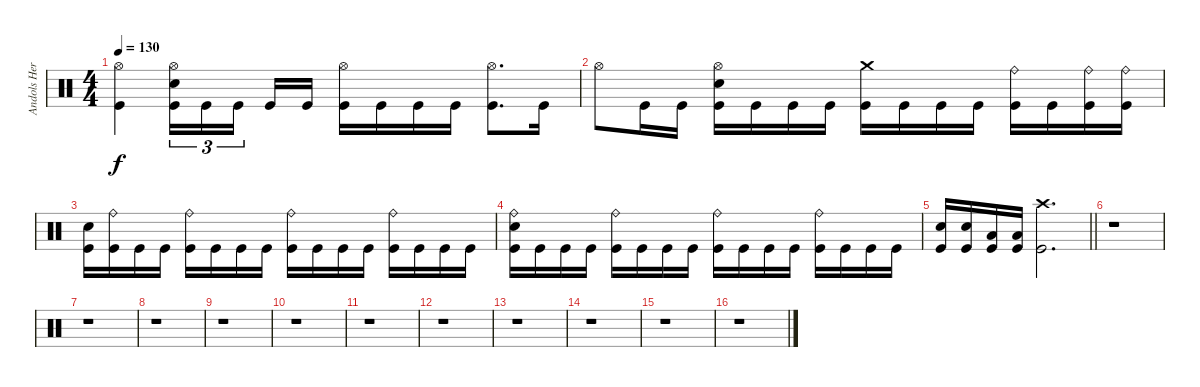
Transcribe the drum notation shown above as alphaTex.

\track ("Andols Herrick" "Andols Her") {instrument percussion}
\staff {score}
\articulation defaults
\ts (4 4)
\tempo 130
\clef neutral
\ks c
("Hi-Hat (open)" "Kick (hit)").4{dy f} ("Hi-Hat (open)" "Electric Snare (hit)" "Kick (hit)").16{tu (3 2)} "Kick (hit)".16{tu (3 2)} "Kick (hit)".16{tu (3 2) beam splitsecondary} "Kick (hit)".16 "Kick (hit)".16 ("Hi-Hat (open)" "Kick (hit)").16 "Kick (hit)".16 "Kick (hit)".16 "Kick (hit)".16 ("Hi-Hat (open)" "Kick (hit)").8{d} "Kick (hit)".16 |
"Hi-Hat (open)".8 "Kick (hit)".16 "Kick (hit)".16 ("Hi-Hat (open)" "Electric Snare (hit)" "Kick (hit)").16 "Kick (hit)".16 "Kick (hit)".16 "Kick (hit)".16 ("Crash medium (hit)" "Kick (hit)").16 "Kick (hit)".16 "Kick (hit)".16 "Kick (hit)".16 ("Ride (bell)" "Kick (hit)").16 "Kick (hit)".16 ("Ride (bell)" "Kick (hit)").16 ("Ride (bell)" "Kick (hit)").16 |
("Electric Snare (hit)" "Kick (hit)").16 ("Ride (bell)" "Kick (hit)").16 "Kick (hit)".16 "Kick (hit)".16 ("Ride (bell)" "Kick (hit)").16 "Kick (hit)".16 "Kick (hit)".16 "Kick (hit)".16 ("Ride (bell)" "Kick (hit)").16 "Kick (hit)".16 "Kick (hit)".16 "Kick (hit)".16 ("Ride (bell)" "Kick (hit)").16 "Kick (hit)".16 "Kick (hit)".16 "Kick (hit)".16 |
("Ride (bell)" "Electric Snare (hit)" "Kick (hit)").16 "Kick (hit)".16 "Kick (hit)".16 "Kick (hit)".16 ("Ride (bell)" "Kick (hit)").16 "Kick (hit)".16 "Kick (hit)".16 "Kick (hit)".16 ("Ride (bell)" "Kick (hit)").16 "Kick (hit)".16 "Kick (hit)".16 "Kick (hit)".16 ("Ride (bell)" "Kick (hit)").16 "Kick (hit)".16 "Kick (hit)".16 "Kick (hit)".16 |
\barLineRight lightlight
("Electric Snare (hit)" "Kick (hit)").16 ("Electric Snare (hit)" "Kick (hit)").16 ("Low Tom (hit)" "Kick (hit)").16 ("Low Tom (hit)" "Kick (hit)").16 ("Crash high (hit)" "Kick (hit)").2{d} |
r.1 |
r.1 |
r.1 |
r.1 |
r.1 |
r.1 |
r.1 |
r.1 |
r.1 |
r.1 |
r.1
